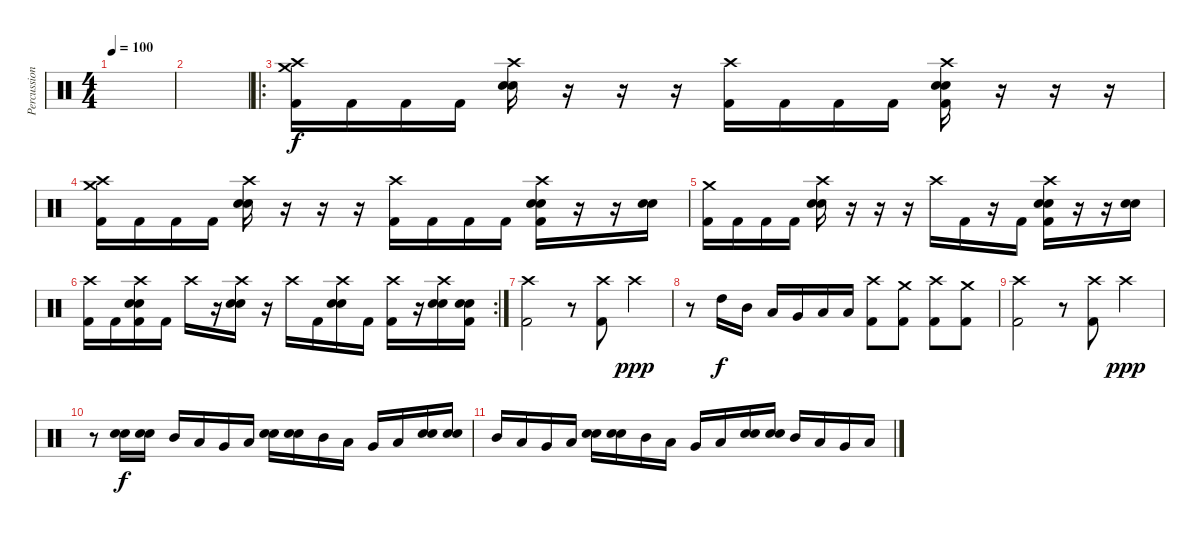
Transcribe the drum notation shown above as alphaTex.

\track ("Percussion" "Percussion") {instrument percussion}
\staff {score}
\articulation defaults
\ts (4 4)
\tempo 100
\clef neutral
\ks c
|
|
\ro
("Crash medium (hit)" "Crash high (hit)" "Kick (hit) 2").16 "Kick (hit) 2".16 "Kick (hit) 2".16 "Kick (hit) 2".16 ("Crash high (hit)" "Electric Snare (hit)" "Snare (hit) 2").16 r.16 r.16 r.16 ("Crash high (hit)" "Kick (hit) 2").16 "Kick (hit) 2".16 "Kick (hit) 2".16 "Kick (hit) 2".16 ("Crash high (hit)" "Electric Snare (hit)" "Snare (hit) 2" "Kick (hit) 2").16 r.16 r.16 r.16 |
("Crash medium (hit)" "Crash high (hit)" "Kick (hit) 2").16 "Kick (hit) 2".16 "Kick (hit) 2".16 "Kick (hit) 2".16 ("Crash high (hit)" "Electric Snare (hit)" "Snare (hit) 2").16 r.16 r.16 r.16 ("Crash high (hit)" "Kick (hit) 2").16 "Kick (hit) 2".16 "Kick (hit) 2".16 "Kick (hit) 2".16 ("Crash high (hit)" "Electric Snare (hit)" "Snare (hit) 2" "Kick (hit) 2").16 r.16 r.16 ("Electric Snare (hit)" "Snare (hit) 2").16 |
("Crash medium (hit)" "Kick (hit) 2").16 "Kick (hit) 2".16 "Kick (hit) 2".16 "Kick (hit) 2".16 ("Crash high (hit)" "Electric Snare (hit)" "Snare (hit) 2").16 r.16 r.16 r.16 "Crash high (hit)".16 "Kick (hit) 2".16 r.16 "Kick (hit) 2".16 ("Crash high (hit)" "Electric Snare (hit)" "Snare (hit) 2" "Kick (hit) 2").16 r.16 r.16 ("Electric Snare (hit)" "Snare (hit) 2").16 |
\rc 2
("Crash high (hit)" "Kick (hit) 2").16 "Kick (hit) 2".16 ("Crash high (hit)" "Electric Snare (hit)" "Snare (hit) 2" "Kick (hit) 2").16 "Kick (hit) 2".16 "Crash high (hit)".16 r.16 ("Crash high (hit)" "Electric Snare (hit)" "Snare (hit) 2").16 r.16 "Crash high (hit)".16 "Kick (hit) 2".16 ("Crash high (hit)" "Electric Snare (hit)" "Snare (hit) 2").16 "Kick (hit) 2".16 ("Crash high (hit)" "Kick (hit) 2").16 r.16 ("Crash high (hit)" "Electric Snare (hit)" "Snare (hit) 2").16 ("Electric Snare (hit)" "Snare (hit) 2" "Kick (hit) 2").16 |
("Crash high (hit)" "Kick (hit) 2").2 r.8 ("Crash high (hit)" "Kick (hit) 2").8 "Crash high (hit)".4{dy ppp} |
r.8 "High Tom (hit)".16{dy f} "Mid Tom (hit)".16 "Low Tom (hit)".16 "Very Low Tom (hit)".16 "Low Floor Tom (hit)".16 "Low Floor Tom (hit)".16 ("Crash high (hit)" "Kick (hit) 2").8 ("Crash medium (hit)" "Kick (hit) 2").8 ("Crash high (hit)" "Kick (hit) 2").8 ("Crash medium (hit)" "Kick (hit) 2").8 |
("Crash high (hit)" "Kick (hit) 2").2 r.8 ("Crash high (hit)" "Kick (hit) 2").8 "Crash high (hit)".4{dy ppp} |
r.8 ("Electric Snare (hit)" "Snare (hit) 2").16{dy f} ("Electric Snare (hit)" "Snare (hit) 2").16 "Mid Tom (hit)".16 "Low Tom (hit)".16 "Very Low Tom (hit)".16 "Low Floor Tom (hit)".16 ("Electric Snare (hit)" "Snare (hit) 2").16 ("Electric Snare (hit)" "Snare (hit) 2").16 "Mid Tom (hit)".16 "Low Tom (hit)".16 "Very Low Tom (hit)".16 "Low Floor Tom (hit)".16 ("Electric Snare (hit)" "Snare (hit) 2").16 ("Electric Snare (hit)" "Snare (hit) 2").16 |
"Mid Tom (hit)".16 "Low Tom (hit)".16 "Very Low Tom (hit)".16 "Low Floor Tom (hit)".16 ("Electric Snare (hit)" "Snare (hit) 2").16 ("Electric Snare (hit)" "Snare (hit) 2").16 "Mid Tom (hit)".16 "Low Tom (hit)".16 "Very Low Tom (hit)".16 "Low Floor Tom (hit)".16 ("Electric Snare (hit)" "Snare (hit) 2").16 ("Electric Snare (hit)" "Snare (hit) 2").16 "Mid Tom (hit)".16 "Low Tom (hit)".16 "Very Low Tom (hit)".16 "Low Floor Tom (hit)".16
